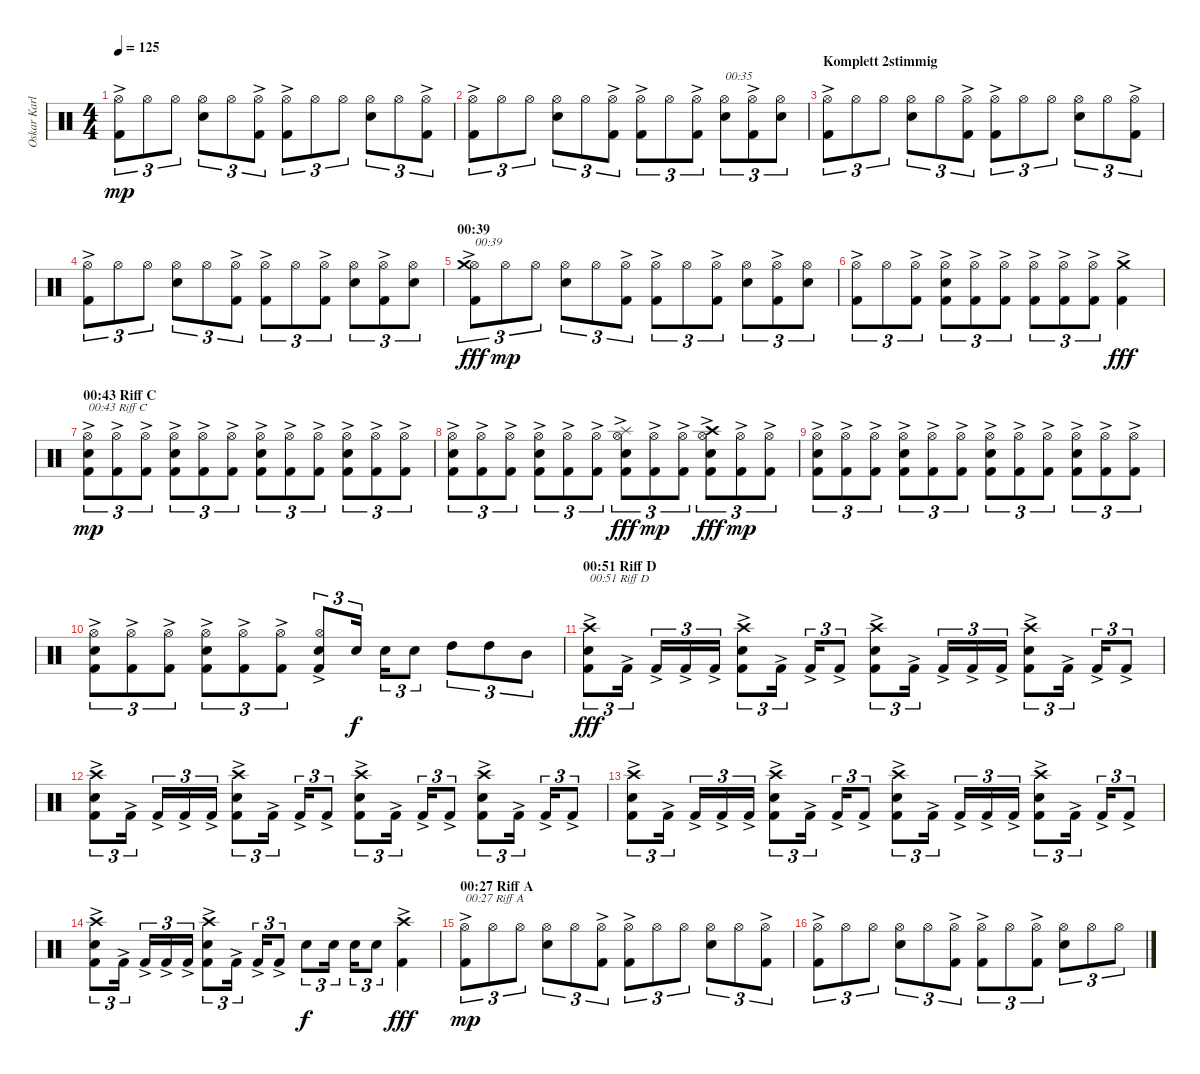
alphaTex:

\track ("Oskar Karlsson" "Oskar Karl") {instrument percussion}
\staff {score}
\articulation defaults
\ts (4 4)
\tempo 125
\clef neutral
\ks c
("Kick (hit) 2"{ac} "Hi-Hat (open)").8{tu (3 2) dy mp} "Hi-Hat (open)".8{tu (3 2)} "Hi-Hat (open)".8{tu (3 2)} ("Electric Snare (hit)" "Hi-Hat (open)").8{tu (3 2)} "Hi-Hat (open)".8{tu (3 2)} ("Kick (hit) 2"{ac} "Hi-Hat (open)").8{tu (3 2)} ("Kick (hit) 2"{ac} "Hi-Hat (open)").8{tu (3 2)} "Hi-Hat (open)".8{tu (3 2)} "Hi-Hat (open)".8{tu (3 2)} ("Electric Snare (hit)" "Hi-Hat (open)").8{tu (3 2)} "Hi-Hat (open)".8{tu (3 2)} ("Kick (hit) 2"{ac} "Hi-Hat (open)").8{tu (3 2)} |
("Kick (hit) 2"{ac} "Hi-Hat (open)").8{tu (3 2)} "Hi-Hat (open)".8{tu (3 2)} "Hi-Hat (open)".8{tu (3 2)} ("Electric Snare (hit)" "Hi-Hat (open)").8{tu (3 2)} "Hi-Hat (open)".8{tu (3 2)} ("Kick (hit) 2"{ac} "Hi-Hat (open)").8{tu (3 2)} ("Kick (hit) 2"{ac} "Hi-Hat (open)").8{tu (3 2)} "Hi-Hat (open)".8{tu (3 2)} ("Kick (hit) 2"{ac} "Hi-Hat (open)").8{tu (3 2)} ("Electric Snare (hit)" "Hi-Hat (open)").8{tu (3 2) txt "00:35"} ("Kick (hit) 2"{ac} "Hi-Hat (open)").8{tu (3 2)} ("Electric Snare (hit)" "Hi-Hat (open)").8{tu (3 2)} |
\section ("" "Komplett 2stimmig")
("Kick (hit) 2"{ac} "Hi-Hat (open)").8{tu (3 2)} "Hi-Hat (open)".8{tu (3 2)} "Hi-Hat (open)".8{tu (3 2)} ("Electric Snare (hit)" "Hi-Hat (open)").8{tu (3 2)} "Hi-Hat (open)".8{tu (3 2)} ("Kick (hit) 2"{ac} "Hi-Hat (open)").8{tu (3 2)} ("Kick (hit) 2"{ac} "Hi-Hat (open)").8{tu (3 2)} "Hi-Hat (open)".8{tu (3 2)} "Hi-Hat (open)".8{tu (3 2)} ("Electric Snare (hit)" "Hi-Hat (open)").8{tu (3 2)} "Hi-Hat (open)".8{tu (3 2)} ("Kick (hit) 2"{ac} "Hi-Hat (open)").8{tu (3 2)} |
("Kick (hit) 2"{ac} "Hi-Hat (open)").8{tu (3 2)} "Hi-Hat (open)".8{tu (3 2)} "Hi-Hat (open)".8{tu (3 2)} ("Electric Snare (hit)" "Hi-Hat (open)").8{tu (3 2)} "Hi-Hat (open)".8{tu (3 2)} ("Kick (hit) 2"{ac} "Hi-Hat (open)").8{tu (3 2)} ("Kick (hit) 2"{ac} "Hi-Hat (open)").8{tu (3 2)} "Hi-Hat (open)".8{tu (3 2)} ("Kick (hit) 2"{ac} "Hi-Hat (open)").8{tu (3 2)} ("Electric Snare (hit)" "Hi-Hat (open)").8{tu (3 2)} ("Kick (hit) 2"{ac} "Hi-Hat (open)").8{tu (3 2)} ("Electric Snare (hit)" "Hi-Hat (open)").8{tu (3 2)} |
\section ("" "00:39")
("Kick (hit) 2"{ac} "Hi-Hat (open)" "Crash medium (hit)"{ac}).8{tu (3 2) txt "00:39" dy fff} "Hi-Hat (open)".8{tu (3 2) dy mp} "Hi-Hat (open)".8{tu (3 2)} ("Electric Snare (hit)" "Hi-Hat (open)").8{tu (3 2)} "Hi-Hat (open)".8{tu (3 2)} ("Kick (hit) 2"{ac} "Hi-Hat (open)").8{tu (3 2)} ("Kick (hit) 2"{ac} "Hi-Hat (open)").8{tu (3 2)} "Hi-Hat (open)".8{tu (3 2)} ("Kick (hit) 2"{ac} "Hi-Hat (open)").8{tu (3 2)} ("Electric Snare (hit)" "Hi-Hat (open)").8{tu (3 2)} ("Kick (hit) 2"{ac} "Hi-Hat (open)").8{tu (3 2)} ("Electric Snare (hit)" "Hi-Hat (open)").8{tu (3 2)} |
("Kick (hit) 2"{ac} "Hi-Hat (open)").8{tu (3 2)} "Hi-Hat (open)".8{tu (3 2)} ("Kick (hit) 2"{ac} "Hi-Hat (open)").8{tu (3 2)} ("Kick (hit) 2"{ac} "Electric Snare (hit)" "Hi-Hat (open)").8{tu (3 2)} ("Kick (hit) 2"{ac} "Hi-Hat (open)").8{tu (3 2)} ("Kick (hit) 2"{ac} "Hi-Hat (open)").8{tu (3 2)} ("Kick (hit) 2"{ac} "Hi-Hat (open)").8{tu (3 2)} ("Kick (hit) 2"{ac} "Hi-Hat (open)").8{tu (3 2)} ("Kick (hit) 2"{ac} "Hi-Hat (open)").8{tu (3 2)} ("Kick (hit) 2"{ac} "Crash medium (hit)"{ac}).4{dy fff} |
\section ("" "00:43 Riff C")
("Kick (hit) 2"{ac} "Electric Snare (hit)" "Hi-Hat (open)").8{tu (3 2) txt "00:43 Riff C" dy mp} ("Kick (hit) 2"{ac} "Hi-Hat (open)").8{tu (3 2)} ("Kick (hit) 2"{ac} "Hi-Hat (open)").8{tu (3 2)} ("Kick (hit) 2"{ac} "Electric Snare (hit)" "Hi-Hat (open)").8{tu (3 2)} ("Kick (hit) 2"{ac} "Hi-Hat (open)").8{tu (3 2)} ("Kick (hit) 2"{ac} "Hi-Hat (open)").8{tu (3 2)} ("Kick (hit) 2"{ac} "Electric Snare (hit)" "Hi-Hat (open)").8{tu (3 2)} ("Kick (hit) 2"{ac} "Hi-Hat (open)").8{tu (3 2)} ("Kick (hit) 2"{ac} "Hi-Hat (open)").8{tu (3 2)} ("Kick (hit) 2"{ac} "Electric Snare (hit)" "Hi-Hat (open)").8{tu (3 2)} ("Kick (hit) 2"{ac} "Hi-Hat (open)").8{tu (3 2)} ("Kick (hit) 2"{ac} "Hi-Hat (open)").8{tu (3 2)} |
("Kick (hit) 2"{ac} "Electric Snare (hit)" "Hi-Hat (open)").8{tu (3 2)} ("Kick (hit) 2"{ac} "Hi-Hat (open)").8{tu (3 2)} ("Kick (hit) 2"{ac} "Hi-Hat (open)").8{tu (3 2)} ("Kick (hit) 2"{ac} "Electric Snare (hit)" "Hi-Hat (open)").8{tu (3 2)} ("Kick (hit) 2"{ac} "Hi-Hat (open)").8{tu (3 2)} ("Kick (hit) 2"{ac} "Hi-Hat (open)").8{tu (3 2)} ("Kick (hit) 2"{ac} "Electric Snare (hit)" "Hi-Hat (open)" "Splash (hit)"{ac}).8{tu (3 2) dy fff} ("Kick (hit) 2"{ac} "Hi-Hat (open)").8{tu (3 2) dy mp} ("Kick (hit) 2"{ac} "Hi-Hat (open)").8{tu (3 2)} ("Kick (hit) 2"{ac} "Electric Snare (hit)" "Hi-Hat (open)" "Crash high (hit)"{ac}).8{tu (3 2) dy fff} ("Kick (hit) 2"{ac} "Hi-Hat (open)").8{tu (3 2) dy mp} ("Kick (hit) 2"{ac} "Hi-Hat (open)").8{tu (3 2)} |
("Kick (hit) 2"{ac} "Electric Snare (hit)" "Hi-Hat (open)").8{tu (3 2)} ("Kick (hit) 2"{ac} "Hi-Hat (open)").8{tu (3 2)} ("Kick (hit) 2"{ac} "Hi-Hat (open)").8{tu (3 2)} ("Kick (hit) 2"{ac} "Electric Snare (hit)" "Hi-Hat (open)").8{tu (3 2)} ("Kick (hit) 2"{ac} "Hi-Hat (open)").8{tu (3 2)} ("Kick (hit) 2"{ac} "Hi-Hat (open)").8{tu (3 2)} ("Kick (hit) 2"{ac} "Electric Snare (hit)" "Hi-Hat (open)").8{tu (3 2)} ("Kick (hit) 2"{ac} "Hi-Hat (open)").8{tu (3 2)} ("Kick (hit) 2"{ac} "Hi-Hat (open)").8{tu (3 2)} ("Kick (hit) 2"{ac} "Electric Snare (hit)" "Hi-Hat (open)").8{tu (3 2)} ("Kick (hit) 2"{ac} "Hi-Hat (open)").8{tu (3 2)} ("Kick (hit) 2"{ac} "Hi-Hat (open)").8{tu (3 2)} |
("Kick (hit) 2"{ac} "Electric Snare (hit)" "Hi-Hat (open)").8{tu (3 2)} ("Kick (hit) 2"{ac} "Hi-Hat (open)").8{tu (3 2)} ("Kick (hit) 2"{ac} "Hi-Hat (open)").8{tu (3 2)} ("Kick (hit) 2"{ac} "Electric Snare (hit)" "Hi-Hat (open)").8{tu (3 2)} ("Kick (hit) 2"{ac} "Hi-Hat (open)").8{tu (3 2)} ("Kick (hit) 2"{ac} "Hi-Hat (open)").8{tu (3 2)} ("Kick (hit) 2"{ac} "Electric Snare (hit)" "Hi-Hat (open)").8{tu (3 2)} "Electric Snare (hit)".16{tu (3 2) dy f} "Electric Snare (hit)".16{tu (3 2)} "Electric Snare (hit)".8{tu (3 2)} "High Tom (hit)".8{tu (3 2)} "High Tom (hit)".8{tu (3 2)} "Mid Tom (hit)".8{tu (3 2)} |
\section ("" "00:51 Riff D")
("Kick (hit) 2"{ac} "Electric Snare (hit)" "Crash high (hit)").8{tu (3 2) txt "00:51 Riff D" dy fff} "Kick (hit) 2"{ac}.16{tu (3 2)} "Kick (hit) 2"{ac}.16{tu (3 2)} "Kick (hit) 2"{ac}.16{tu (3 2)} "Kick (hit) 2"{ac}.16{tu (3 2)} ("Kick (hit) 2"{ac} "Electric Snare (hit)" "Crash high (hit)").8{tu (3 2)} "Kick (hit) 2"{ac}.16{tu (3 2)} "Kick (hit) 2"{ac}.16{tu (3 2)} "Kick (hit) 2"{ac}.8{tu (3 2)} ("Kick (hit) 2"{ac} "Electric Snare (hit)" "Crash high (hit)").8{tu (3 2)} "Kick (hit) 2"{ac}.16{tu (3 2)} "Kick (hit) 2"{ac}.16{tu (3 2)} "Kick (hit) 2"{ac}.16{tu (3 2)} "Kick (hit) 2"{ac}.16{tu (3 2)} ("Kick (hit) 2"{ac} "Electric Snare (hit)" "Crash high (hit)").8{tu (3 2)} "Kick (hit) 2"{ac}.16{tu (3 2)} "Kick (hit) 2"{ac}.16{tu (3 2)} "Kick (hit) 2"{ac}.8{tu (3 2)} |
("Kick (hit) 2"{ac} "Electric Snare (hit)" "Crash high (hit)").8{tu (3 2)} "Kick (hit) 2"{ac}.16{tu (3 2)} "Kick (hit) 2"{ac}.16{tu (3 2)} "Kick (hit) 2"{ac}.16{tu (3 2)} "Kick (hit) 2"{ac}.16{tu (3 2)} ("Kick (hit) 2"{ac} "Electric Snare (hit)" "Crash high (hit)").8{tu (3 2)} "Kick (hit) 2"{ac}.16{tu (3 2)} "Kick (hit) 2"{ac}.16{tu (3 2)} "Kick (hit) 2"{ac}.8{tu (3 2)} ("Kick (hit) 2"{ac} "Electric Snare (hit)" "Crash high (hit)").8{tu (3 2)} "Kick (hit) 2"{ac}.16{tu (3 2)} "Kick (hit) 2"{ac}.16{tu (3 2)} "Kick (hit) 2"{ac}.8{tu (3 2)} ("Kick (hit) 2"{ac} "Electric Snare (hit)" "Crash high (hit)").8{tu (3 2)} "Kick (hit) 2"{ac}.16{tu (3 2)} "Kick (hit) 2"{ac}.16{tu (3 2)} "Kick (hit) 2"{ac}.8{tu (3 2)} |
("Kick (hit) 2"{ac} "Electric Snare (hit)" "Crash high (hit)").8{tu (3 2)} "Kick (hit) 2"{ac}.16{tu (3 2)} "Kick (hit) 2"{ac}.16{tu (3 2)} "Kick (hit) 2"{ac}.16{tu (3 2)} "Kick (hit) 2"{ac}.16{tu (3 2)} ("Kick (hit) 2"{ac} "Electric Snare (hit)" "Crash high (hit)").8{tu (3 2)} "Kick (hit) 2"{ac}.16{tu (3 2)} "Kick (hit) 2"{ac}.16{tu (3 2)} "Kick (hit) 2"{ac}.8{tu (3 2)} ("Kick (hit) 2"{ac} "Electric Snare (hit)" "Crash high (hit)").8{tu (3 2)} "Kick (hit) 2"{ac}.16{tu (3 2)} "Kick (hit) 2"{ac}.16{tu (3 2)} "Kick (hit) 2"{ac}.16{tu (3 2)} "Kick (hit) 2"{ac}.16{tu (3 2)} ("Kick (hit) 2"{ac} "Electric Snare (hit)" "Crash high (hit)").8{tu (3 2)} "Kick (hit) 2"{ac}.16{tu (3 2)} "Kick (hit) 2"{ac}.16{tu (3 2)} "Kick (hit) 2"{ac}.8{tu (3 2)} |
("Kick (hit) 2"{ac} "Electric Snare (hit)" "Crash high (hit)").8{tu (3 2)} "Kick (hit) 2"{ac}.16{tu (3 2)} "Kick (hit) 2"{ac}.16{tu (3 2)} "Kick (hit) 2"{ac}.16{tu (3 2)} "Kick (hit) 2"{ac}.16{tu (3 2)} ("Kick (hit) 2"{ac} "Electric Snare (hit)" "Crash high (hit)").8{tu (3 2)} "Kick (hit) 2"{ac}.16{tu (3 2)} "Kick (hit) 2"{ac}.16{tu (3 2)} "Kick (hit) 2"{ac}.8{tu (3 2)} "Electric Snare (hit)".8{tu (3 2) dy f} "Electric Snare (hit)".16{tu (3 2)} "Electric Snare (hit)".16{tu (3 2)} "Electric Snare (hit)".8{tu (3 2)} ("Kick (hit) 2"{ac} "Crash high (hit)"{ac}).4{dy fff} |
\section ("" "00:27 Riff A")
("Kick (hit) 2"{ac} "Hi-Hat (open)").8{tu (3 2) txt "00:27 Riff A" dy mp} "Hi-Hat (open)".8{tu (3 2)} "Hi-Hat (open)".8{tu (3 2)} ("Electric Snare (hit)" "Hi-Hat (open)").8{tu (3 2)} "Hi-Hat (open)".8{tu (3 2)} ("Kick (hit) 2"{ac} "Hi-Hat (open)").8{tu (3 2)} ("Kick (hit) 2"{ac} "Hi-Hat (open)").8{tu (3 2)} "Hi-Hat (open)".8{tu (3 2)} "Hi-Hat (open)".8{tu (3 2)} ("Electric Snare (hit)" "Hi-Hat (open)").8{tu (3 2)} "Hi-Hat (open)".8{tu (3 2)} ("Kick (hit) 2"{ac} "Hi-Hat (open)").8{tu (3 2)} |
("Kick (hit) 2"{ac} "Hi-Hat (open)").8{tu (3 2)} "Hi-Hat (open)".8{tu (3 2)} "Hi-Hat (open)".8{tu (3 2)} ("Electric Snare (hit)" "Hi-Hat (open)").8{tu (3 2)} "Hi-Hat (open)".8{tu (3 2)} ("Kick (hit) 2"{ac} "Hi-Hat (open)").8{tu (3 2)} ("Kick (hit) 2"{ac} "Hi-Hat (open)").8{tu (3 2)} "Hi-Hat (open)".8{tu (3 2)} ("Kick (hit) 2"{ac} "Hi-Hat (open)").8{tu (3 2)} ("Electric Snare (hit)" "Hi-Hat (open)").8{tu (3 2)} "Hi-Hat (open)".8{tu (3 2)} "Hi-Hat (open)".8{tu (3 2)}
